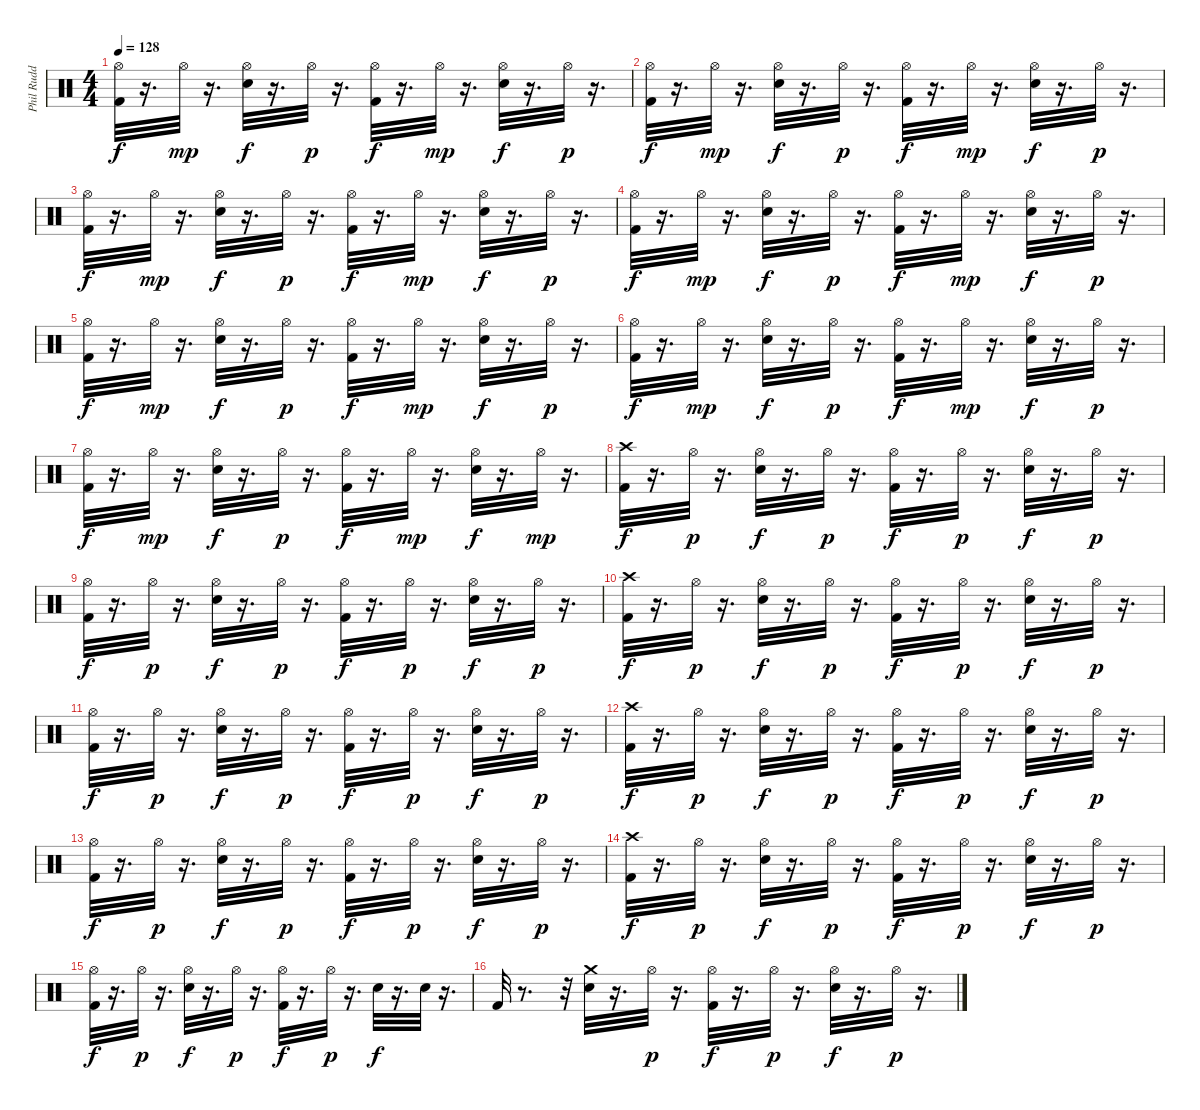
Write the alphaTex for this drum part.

\track ("Phil Rudd" "Phil Rudd") {instrument percussion}
\staff {score}
\articulation defaults
\ts (4 4)
\tempo 128
\clef neutral
\ks c
("Hi-Hat (open)" "Kick (hit) 2").32{dy f} r.16{d} "Hi-Hat (open)".32{dy mp} r.16{d} ("Hi-Hat (open)" "Electric Snare (hit)").32{dy f} r.16{d} "Hi-Hat (open)".32{dy p} r.16{d} ("Hi-Hat (open)" "Kick (hit) 2").32{dy f} r.16{d} "Hi-Hat (open)".32{dy mp} r.16{d} ("Hi-Hat (open)" "Electric Snare (hit)").32{dy f} r.16{d} "Hi-Hat (open)".32{dy p} r.16{d} |
("Hi-Hat (open)" "Kick (hit) 2").32{dy f} r.16{d} "Hi-Hat (open)".32{dy mp} r.16{d} ("Hi-Hat (open)" "Electric Snare (hit)").32{dy f} r.16{d} "Hi-Hat (open)".32{dy p} r.16{d} ("Hi-Hat (open)" "Kick (hit) 2").32{dy f} r.16{d} "Hi-Hat (open)".32{dy mp} r.16{d} ("Hi-Hat (open)" "Electric Snare (hit)").32{dy f} r.16{d} "Hi-Hat (open)".32{dy p} r.16{d} |
("Hi-Hat (open)" "Kick (hit) 2").32{dy f} r.16{d} "Hi-Hat (open)".32{dy mp} r.16{d} ("Hi-Hat (open)" "Electric Snare (hit)").32{dy f} r.16{d} "Hi-Hat (open)".32{dy p} r.16{d} ("Hi-Hat (open)" "Kick (hit) 2").32{dy f} r.16{d} "Hi-Hat (open)".32{dy mp} r.16{d} ("Hi-Hat (open)" "Electric Snare (hit)").32{dy f} r.16{d} "Hi-Hat (open)".32{dy p} r.16{d} |
("Hi-Hat (open)" "Kick (hit) 2").32{dy f} r.16{d} "Hi-Hat (open)".32{dy mp} r.16{d} ("Hi-Hat (open)" "Electric Snare (hit)").32{dy f} r.16{d} "Hi-Hat (open)".32{dy p} r.16{d} ("Hi-Hat (open)" "Kick (hit) 2").32{dy f} r.16{d} "Hi-Hat (open)".32{dy mp} r.16{d} ("Hi-Hat (open)" "Electric Snare (hit)").32{dy f} r.16{d} "Hi-Hat (open)".32{dy p} r.16{d} |
("Hi-Hat (open)" "Kick (hit) 2").32{dy f} r.16{d} "Hi-Hat (open)".32{dy mp} r.16{d} ("Hi-Hat (open)" "Electric Snare (hit)").32{dy f} r.16{d} "Hi-Hat (open)".32{dy p} r.16{d} ("Hi-Hat (open)" "Kick (hit) 2").32{dy f} r.16{d} "Hi-Hat (open)".32{dy mp} r.16{d} ("Hi-Hat (open)" "Electric Snare (hit)").32{dy f} r.16{d} "Hi-Hat (open)".32{dy p} r.16{d} |
("Hi-Hat (open)" "Kick (hit) 2").32{dy f} r.16{d} "Hi-Hat (open)".32{dy mp} r.16{d} ("Hi-Hat (open)" "Electric Snare (hit)").32{dy f} r.16{d} "Hi-Hat (open)".32{dy p} r.16{d} ("Hi-Hat (open)" "Kick (hit) 2").32{dy f} r.16{d} "Hi-Hat (open)".32{dy mp} r.16{d} ("Hi-Hat (open)" "Electric Snare (hit)").32{dy f} r.16{d} "Hi-Hat (open)".32{dy p} r.16{d} |
("Hi-Hat (open)" "Kick (hit) 2").32{dy f} r.16{d} "Hi-Hat (open)".32{dy mp} r.16{d} ("Hi-Hat (open)" "Electric Snare (hit)").32{dy f} r.16{d} "Hi-Hat (open)".32{dy p} r.16{d} ("Hi-Hat (open)" "Kick (hit) 2").32{dy f} r.16{d} "Hi-Hat (open)".32{dy mp} r.16{d} ("Hi-Hat (open)" "Electric Snare (hit)").32{dy f} r.16{d} "Hi-Hat (open)".32{dy mp} r.16{d} |
("Crash high (hit)" "Kick (hit) 2").32{dy f} r.16{d} "Hi-Hat (open)".32{dy p} r.16{d} ("Hi-Hat (open)" "Electric Snare (hit)").32{dy f} r.16{d} "Hi-Hat (open)".32{dy p} r.16{d} ("Hi-Hat (open)" "Kick (hit) 2").32{dy f} r.16{d} "Hi-Hat (open)".32{dy p} r.16{d} ("Hi-Hat (open)" "Electric Snare (hit)").32{dy f} r.16{d} "Hi-Hat (open)".32{dy p} r.16{d} |
("Hi-Hat (open)" "Kick (hit) 2").32{dy f} r.16{d} "Hi-Hat (open)".32{dy p} r.16{d} ("Hi-Hat (open)" "Electric Snare (hit)").32{dy f} r.16{d} "Hi-Hat (open)".32{dy p} r.16{d} ("Hi-Hat (open)" "Kick (hit) 2").32{dy f} r.16{d} "Hi-Hat (open)".32{dy p} r.16{d} ("Hi-Hat (open)" "Electric Snare (hit)").32{dy f} r.16{d} "Hi-Hat (open)".32{dy p} r.16{d} |
("Crash high (hit)" "Kick (hit) 2").32{dy f} r.16{d} "Hi-Hat (open)".32{dy p} r.16{d} ("Hi-Hat (open)" "Electric Snare (hit)").32{dy f} r.16{d} "Hi-Hat (open)".32{dy p} r.16{d} ("Hi-Hat (open)" "Kick (hit) 2").32{dy f} r.16{d} "Hi-Hat (open)".32{dy p} r.16{d} ("Hi-Hat (open)" "Electric Snare (hit)").32{dy f} r.16{d} "Hi-Hat (open)".32{dy p} r.16{d} |
("Hi-Hat (open)" "Kick (hit) 2").32{dy f} r.16{d} "Hi-Hat (open)".32{dy p} r.16{d} ("Hi-Hat (open)" "Electric Snare (hit)").32{dy f} r.16{d} "Hi-Hat (open)".32{dy p} r.16{d} ("Hi-Hat (open)" "Kick (hit) 2").32{dy f} r.16{d} "Hi-Hat (open)".32{dy p} r.16{d} ("Hi-Hat (open)" "Electric Snare (hit)").32{dy f} r.16{d} "Hi-Hat (open)".32{dy p} r.16{d} |
("Crash high (hit)" "Kick (hit) 2").32{dy f} r.16{d} "Hi-Hat (open)".32{dy p} r.16{d} ("Hi-Hat (open)" "Electric Snare (hit)").32{dy f} r.16{d} "Hi-Hat (open)".32{dy p} r.16{d} ("Hi-Hat (open)" "Kick (hit) 2").32{dy f} r.16{d} "Hi-Hat (open)".32{dy p} r.16{d} ("Hi-Hat (open)" "Electric Snare (hit)").32{dy f} r.16{d} "Hi-Hat (open)".32{dy p} r.16{d} |
("Hi-Hat (open)" "Kick (hit) 2").32{dy f} r.16{d} "Hi-Hat (open)".32{dy p} r.16{d} ("Hi-Hat (open)" "Electric Snare (hit)").32{dy f} r.16{d} "Hi-Hat (open)".32{dy p} r.16{d} ("Hi-Hat (open)" "Kick (hit) 2").32{dy f} r.16{d} "Hi-Hat (open)".32{dy p} r.16{d} ("Hi-Hat (open)" "Electric Snare (hit)").32{dy f} r.16{d} "Hi-Hat (open)".32{dy p} r.16{d} |
("Crash high (hit)" "Kick (hit) 2").32{dy f} r.16{d} "Hi-Hat (open)".32{dy p} r.16{d} ("Hi-Hat (open)" "Electric Snare (hit)").32{dy f} r.16{d} "Hi-Hat (open)".32{dy p} r.16{d} ("Hi-Hat (open)" "Kick (hit) 2").32{dy f} r.16{d} "Hi-Hat (open)".32{dy p} r.16{d} ("Hi-Hat (open)" "Electric Snare (hit)").32{dy f} r.16{d} "Hi-Hat (open)".32{dy p} r.16{d} |
("Hi-Hat (open)" "Kick (hit) 2").32{dy f} r.16{d} "Hi-Hat (open)".32{dy p} r.16{d} ("Hi-Hat (open)" "Electric Snare (hit)").32{dy f} r.16{d} "Hi-Hat (open)".32{dy p} r.16{d} ("Hi-Hat (open)" "Kick (hit) 2").32{dy f} r.16{d} "Hi-Hat (open)".32{dy p} r.16{d} "Electric Snare (hit)".32{dy f} r.16{d} "Electric Snare (hit)".32 r.16{d} |
"Kick (hit) 2".32 r.8{d} r.32 ("Crash medium (hit)" "Electric Snare (hit)").32 r.16{d} "Hi-Hat (open)".32{dy p} r.16{d} ("Hi-Hat (open)" "Kick (hit) 2").32{dy f} r.16{d} "Hi-Hat (open)".32{dy p} r.16{d} ("Hi-Hat (open)" "Electric Snare (hit)").32{dy f} r.16{d} "Hi-Hat (open)".32{dy p} r.16{d}
